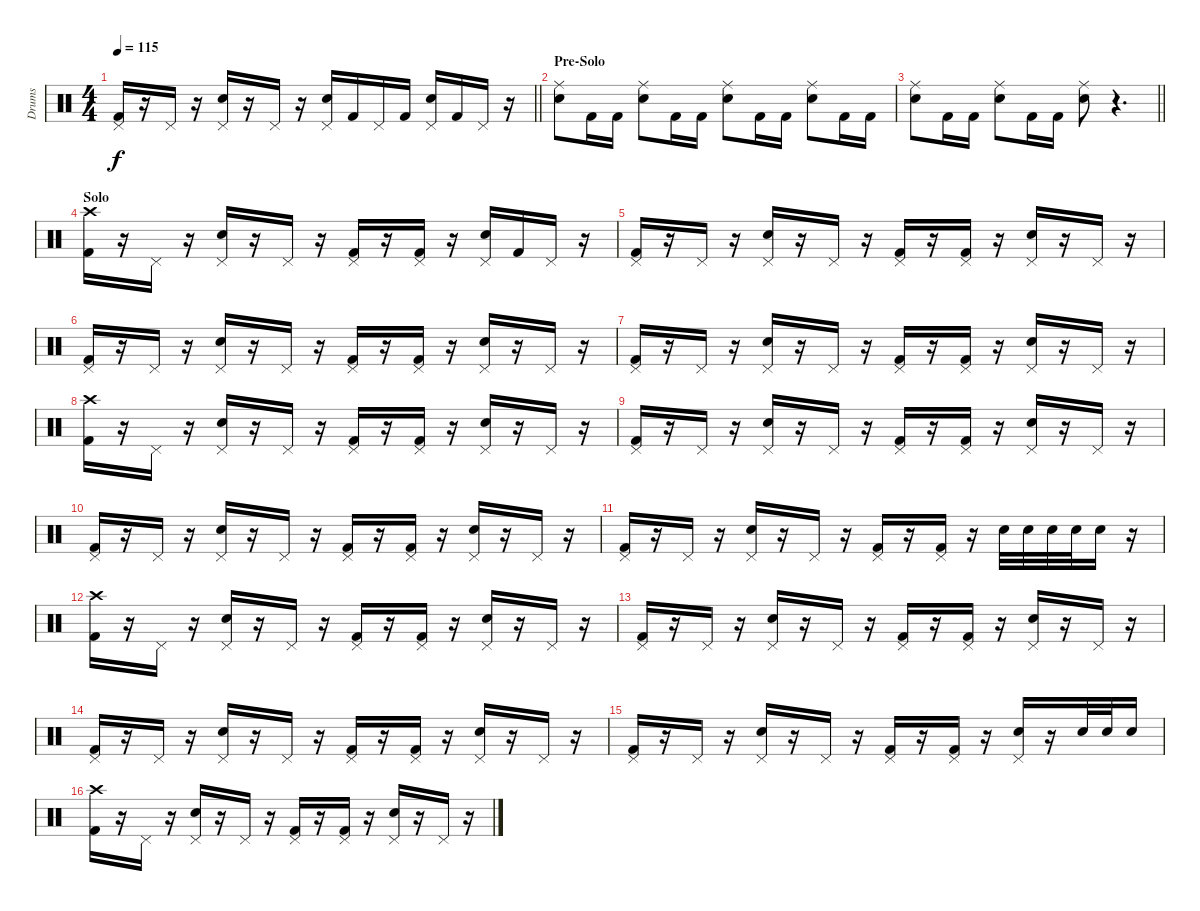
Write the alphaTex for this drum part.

\track ("Drums" "Drums") {instrument percussion}
\staff {score}
\articulation defaults
\ts (4 4)
\tempo 115
\clef neutral
\barLineRight lightlight
\ks c
("Pedal Hi-Hat (hit)" "Kick (hit) 2").16{dy f} r.16 "Pedal Hi-Hat (hit)".16 r.16 ("Pedal Hi-Hat (hit)" "Snare (hit) 2").16 r.16 "Pedal Hi-Hat (hit)".16 r.16 ("Pedal Hi-Hat (hit)" "Snare (hit) 2").16 "Kick (hit) 2".16 "Pedal Hi-Hat (hit)".16 "Kick (hit) 2".16 ("Pedal Hi-Hat (hit)" "Snare (hit) 2").16 "Kick (hit) 2".16 "Pedal Hi-Hat (hit)".16 r.16 |
\section ("" "Pre-Solo")
("Ride (middle)" "Snare (hit) 2").8 "Kick (hit) 2".16 "Kick (hit) 2".16 ("Ride (middle)" "Snare (hit) 2").8 "Kick (hit) 2".16 "Kick (hit) 2".16 ("Ride (middle)" "Snare (hit) 2").8 "Kick (hit) 2".16 "Kick (hit) 2".16 ("Ride (middle)" "Snare (hit) 2").8 "Kick (hit) 2".16 "Kick (hit) 2".16 |
\barLineRight lightlight
("Ride (middle)" "Snare (hit) 2").8 "Kick (hit) 2".16 "Kick (hit) 2".16 ("Ride (middle)" "Snare (hit) 2").8 "Kick (hit) 2".16 "Kick (hit) 2".16 ("Ride (middle)" "Snare (hit) 2").8 r.4{d} |
\section ("" "Solo")
("Crash high (hit)" "Kick (hit) 2").16 r.16 "Pedal Hi-Hat (hit)".16 r.16 ("Pedal Hi-Hat (hit)" "Snare (hit) 2").16 r.16 "Pedal Hi-Hat (hit)".16 r.16 ("Pedal Hi-Hat (hit)" "Kick (hit) 2").16 r.16 ("Pedal Hi-Hat (hit)" "Kick (hit) 2").16 r.16 ("Pedal Hi-Hat (hit)" "Snare (hit) 2").16 "Kick (hit) 2".16 "Pedal Hi-Hat (hit)".16 r.16 |
("Pedal Hi-Hat (hit)" "Kick (hit) 2").16 r.16 "Pedal Hi-Hat (hit)".16 r.16 ("Pedal Hi-Hat (hit)" "Snare (hit) 2").16 r.16 "Pedal Hi-Hat (hit)".16 r.16 ("Pedal Hi-Hat (hit)" "Kick (hit) 2").16 r.16 ("Pedal Hi-Hat (hit)" "Kick (hit) 2").16 r.16 ("Pedal Hi-Hat (hit)" "Snare (hit) 2").16 r.16 "Pedal Hi-Hat (hit)".16 r.16 |
("Pedal Hi-Hat (hit)" "Kick (hit) 2").16 r.16 "Pedal Hi-Hat (hit)".16 r.16 ("Pedal Hi-Hat (hit)" "Snare (hit) 2").16 r.16 "Pedal Hi-Hat (hit)".16 r.16 ("Pedal Hi-Hat (hit)" "Kick (hit) 2").16 r.16 ("Pedal Hi-Hat (hit)" "Kick (hit) 2").16 r.16 ("Pedal Hi-Hat (hit)" "Snare (hit) 2").16 r.16 "Pedal Hi-Hat (hit)".16 r.16 |
("Pedal Hi-Hat (hit)" "Kick (hit) 2").16 r.16 "Pedal Hi-Hat (hit)".16 r.16 ("Pedal Hi-Hat (hit)" "Snare (hit) 2").16 r.16 "Pedal Hi-Hat (hit)".16 r.16 ("Pedal Hi-Hat (hit)" "Kick (hit) 2").16 r.16 ("Pedal Hi-Hat (hit)" "Kick (hit) 2").16 r.16 ("Pedal Hi-Hat (hit)" "Snare (hit) 2").16 r.16 "Pedal Hi-Hat (hit)".16 r.16 |
("Crash high (hit)" "Kick (hit) 2").16 r.16 "Pedal Hi-Hat (hit)".16 r.16 ("Pedal Hi-Hat (hit)" "Snare (hit) 2").16 r.16 "Pedal Hi-Hat (hit)".16 r.16 ("Pedal Hi-Hat (hit)" "Kick (hit) 2").16 r.16 ("Pedal Hi-Hat (hit)" "Kick (hit) 2").16 r.16 ("Pedal Hi-Hat (hit)" "Snare (hit) 2").16 r.16 "Pedal Hi-Hat (hit)".16 r.16 |
("Pedal Hi-Hat (hit)" "Kick (hit) 2").16 r.16 "Pedal Hi-Hat (hit)".16 r.16 ("Pedal Hi-Hat (hit)" "Snare (hit) 2").16 r.16 "Pedal Hi-Hat (hit)".16 r.16 ("Pedal Hi-Hat (hit)" "Kick (hit) 2").16 r.16 ("Pedal Hi-Hat (hit)" "Kick (hit) 2").16 r.16 ("Pedal Hi-Hat (hit)" "Snare (hit) 2").16 r.16 "Pedal Hi-Hat (hit)".16 r.16 |
("Pedal Hi-Hat (hit)" "Kick (hit) 2").16 r.16 "Pedal Hi-Hat (hit)".16 r.16 ("Pedal Hi-Hat (hit)" "Snare (hit) 2").16 r.16 "Pedal Hi-Hat (hit)".16 r.16 ("Pedal Hi-Hat (hit)" "Kick (hit) 2").16 r.16 ("Pedal Hi-Hat (hit)" "Kick (hit) 2").16 r.16 ("Pedal Hi-Hat (hit)" "Snare (hit) 2").16 r.16 "Pedal Hi-Hat (hit)".16 r.16 |
("Pedal Hi-Hat (hit)" "Kick (hit) 2").16 r.16 "Pedal Hi-Hat (hit)".16 r.16 ("Pedal Hi-Hat (hit)" "Snare (hit) 2").16 r.16 "Pedal Hi-Hat (hit)".16 r.16 ("Pedal Hi-Hat (hit)" "Kick (hit) 2").16 r.16 ("Pedal Hi-Hat (hit)" "Kick (hit) 2").16 r.16 "Snare (hit) 2".32 "Snare (hit) 2".32 "Snare (hit) 2".32 "Snare (hit) 2".32 "Snare (hit) 2".16 r.16 |
("Crash high (hit)" "Kick (hit) 2").16 r.16 "Pedal Hi-Hat (hit)".16 r.16 ("Pedal Hi-Hat (hit)" "Snare (hit) 2").16 r.16 "Pedal Hi-Hat (hit)".16 r.16 ("Pedal Hi-Hat (hit)" "Kick (hit) 2").16 r.16 ("Pedal Hi-Hat (hit)" "Kick (hit) 2").16 r.16 ("Pedal Hi-Hat (hit)" "Snare (hit) 2").16 r.16 "Pedal Hi-Hat (hit)".16 r.16 |
("Pedal Hi-Hat (hit)" "Kick (hit) 2").16 r.16 "Pedal Hi-Hat (hit)".16 r.16 ("Pedal Hi-Hat (hit)" "Snare (hit) 2").16 r.16 "Pedal Hi-Hat (hit)".16 r.16 ("Pedal Hi-Hat (hit)" "Kick (hit) 2").16 r.16 ("Pedal Hi-Hat (hit)" "Kick (hit) 2").16 r.16 ("Pedal Hi-Hat (hit)" "Snare (hit) 2").16 r.16 "Pedal Hi-Hat (hit)".16 r.16 |
("Pedal Hi-Hat (hit)" "Kick (hit) 2").16 r.16 "Pedal Hi-Hat (hit)".16 r.16 ("Pedal Hi-Hat (hit)" "Snare (hit) 2").16 r.16 "Pedal Hi-Hat (hit)".16 r.16 ("Pedal Hi-Hat (hit)" "Kick (hit) 2").16 r.16 ("Pedal Hi-Hat (hit)" "Kick (hit) 2").16 r.16 ("Pedal Hi-Hat (hit)" "Snare (hit) 2").16 r.16 "Pedal Hi-Hat (hit)".16 r.16 |
("Pedal Hi-Hat (hit)" "Kick (hit) 2").16 r.16 "Pedal Hi-Hat (hit)".16 r.16 ("Pedal Hi-Hat (hit)" "Snare (hit) 2").16 r.16 "Pedal Hi-Hat (hit)".16 r.16 ("Pedal Hi-Hat (hit)" "Kick (hit) 2").16 r.16 ("Pedal Hi-Hat (hit)" "Kick (hit) 2").16 r.16 ("Pedal Hi-Hat (hit)" "Snare (hit) 2").16 r.16 "Snare (hit) 2".32 "Snare (hit) 2".32 "Snare (hit) 2".16 |
("Crash high (hit)" "Kick (hit) 2").16 r.16 "Pedal Hi-Hat (hit)".16 r.16 ("Pedal Hi-Hat (hit)" "Snare (hit) 2").16 r.16 "Pedal Hi-Hat (hit)".16 r.16 ("Pedal Hi-Hat (hit)" "Kick (hit) 2").16 r.16 ("Pedal Hi-Hat (hit)" "Kick (hit) 2").16 r.16 ("Pedal Hi-Hat (hit)" "Snare (hit) 2").16 r.16 "Pedal Hi-Hat (hit)".16 r.16
